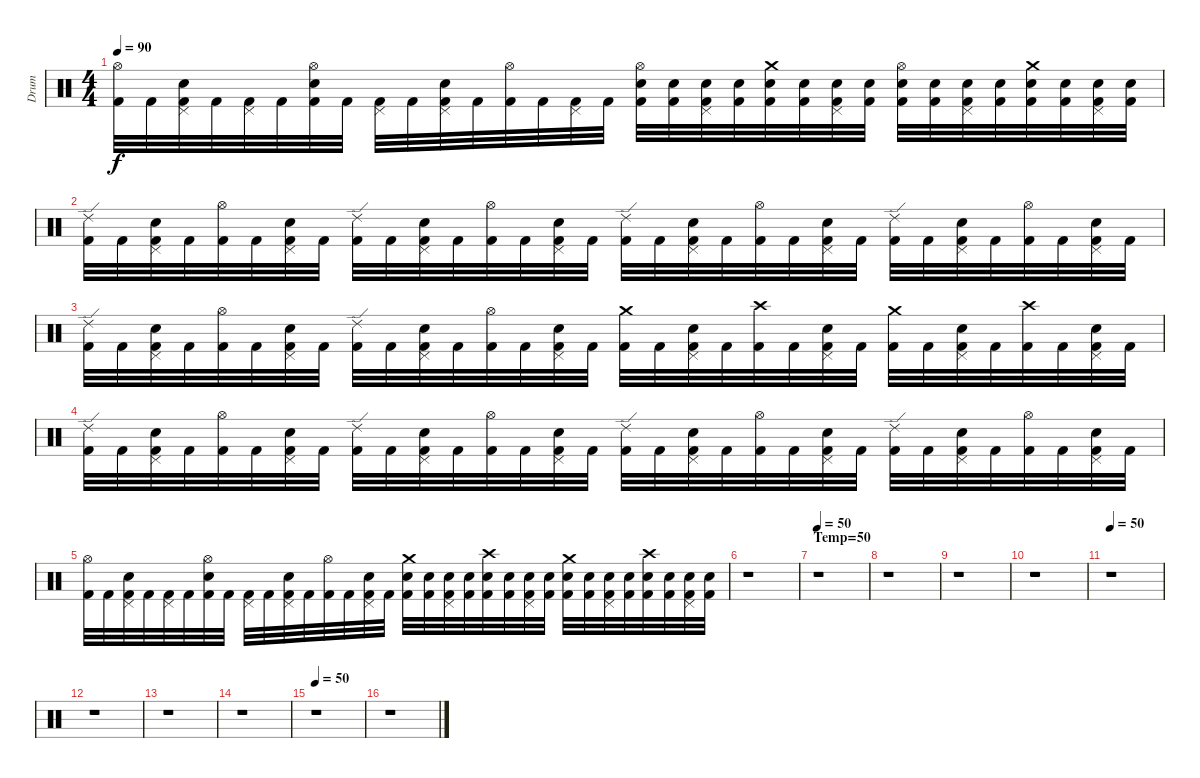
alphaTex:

\track ("Drum" "Drum") {instrument percussion}
\staff {score}
\articulation defaults
\ts (4 4)
\tempo 90
\clef neutral
\ks c
("Kick (hit) 2" "Hi-Hat (open)").32{dy f} "Kick (hit) 2".32 ("Kick (hit) 2" "Pedal Hi-Hat (hit)" "Snare (hit) 2").32 "Kick (hit) 2".32 ("Kick (hit) 2" "Pedal Hi-Hat (hit)").32 "Kick (hit) 2".32 ("Kick (hit) 2" "Hi-Hat (open)" "Snare (hit) 2").32 "Kick (hit) 2".32 ("Kick (hit) 2" "Pedal Hi-Hat (hit)").32 "Kick (hit) 2".32 ("Kick (hit) 2" "Pedal Hi-Hat (hit)" "Snare (hit) 2").32 "Kick (hit) 2".32 ("Kick (hit) 2" "Hi-Hat (open)").32 "Kick (hit) 2".32 ("Kick (hit) 2" "Pedal Hi-Hat (hit)").32 "Kick (hit) 2".32 ("Kick (hit) 2" "Hi-Hat (open)" "Snare (hit) 2").32 ("Kick (hit) 2" "Snare (hit) 2").32 ("Kick (hit) 2" "Pedal Hi-Hat (hit)" "Snare (hit) 2").32 ("Kick (hit) 2" "Snare (hit) 2").32 ("Kick (hit) 2" "Crash medium (hit)" "Snare (hit) 2").32 ("Kick (hit) 2" "Snare (hit) 2").32 ("Kick (hit) 2" "Pedal Hi-Hat (hit)" "Snare (hit) 2").32 ("Kick (hit) 2" "Snare (hit) 2").32 ("Kick (hit) 2" "Hi-Hat (open)" "Snare (hit) 2").32 ("Kick (hit) 2" "Snare (hit) 2").32 ("Kick (hit) 2" "Pedal Hi-Hat (hit)" "Snare (hit) 2").32 ("Kick (hit) 2" "Snare (hit) 2").32 ("Kick (hit) 2" "Crash medium (hit)" "Snare (hit) 2").32 ("Kick (hit) 2" "Snare (hit) 2").32 ("Kick (hit) 2" "Pedal Hi-Hat (hit)" "Snare (hit) 2").32 ("Kick (hit) 2" "Snare (hit) 2").32 |
("Kick (hit) 2" "Ride (edge) 2").32 "Kick (hit) 2".32 ("Kick (hit) 2" "Pedal Hi-Hat (hit)" "Snare (hit) 2").32 "Kick (hit) 2".32 ("Kick (hit) 2" "Hi-Hat (open)").32 "Kick (hit) 2".32 ("Kick (hit) 2" "Pedal Hi-Hat (hit)" "Snare (hit) 2").32 "Kick (hit) 2".32 ("Kick (hit) 2" "Ride (edge) 2").32 "Kick (hit) 2".32 ("Kick (hit) 2" "Pedal Hi-Hat (hit)" "Snare (hit) 2").32 "Kick (hit) 2".32 ("Kick (hit) 2" "Hi-Hat (open)").32 "Kick (hit) 2".32 ("Kick (hit) 2" "Pedal Hi-Hat (hit)" "Snare (hit) 2").32 "Kick (hit) 2".32 ("Kick (hit) 2" "Ride (edge) 2").32 "Kick (hit) 2".32 ("Kick (hit) 2" "Pedal Hi-Hat (hit)" "Snare (hit) 2").32 "Kick (hit) 2".32 ("Kick (hit) 2" "Hi-Hat (open)").32 "Kick (hit) 2".32 ("Kick (hit) 2" "Pedal Hi-Hat (hit)" "Snare (hit) 2").32 "Kick (hit) 2".32 ("Kick (hit) 2" "Ride (edge) 2").32 "Kick (hit) 2".32 ("Kick (hit) 2" "Pedal Hi-Hat (hit)" "Snare (hit) 2").32 "Kick (hit) 2".32 ("Kick (hit) 2" "Hi-Hat (open)").32 "Kick (hit) 2".32 ("Kick (hit) 2" "Pedal Hi-Hat (hit)" "Snare (hit) 2").32 "Kick (hit) 2".32 |
("Kick (hit) 2" "Ride (edge) 2").32 "Kick (hit) 2".32 ("Kick (hit) 2" "Pedal Hi-Hat (hit)" "Snare (hit) 2").32 "Kick (hit) 2".32 ("Kick (hit) 2" "Hi-Hat (open)").32 "Kick (hit) 2".32 ("Kick (hit) 2" "Pedal Hi-Hat (hit)" "Snare (hit) 2").32 "Kick (hit) 2".32 ("Kick (hit) 2" "Ride (edge) 2").32 "Kick (hit) 2".32 ("Kick (hit) 2" "Pedal Hi-Hat (hit)" "Snare (hit) 2").32 "Kick (hit) 2".32 ("Kick (hit) 2" "Hi-Hat (open)").32 "Kick (hit) 2".32 ("Kick (hit) 2" "Pedal Hi-Hat (hit)" "Snare (hit) 2").32 "Kick (hit) 2".32 ("Kick (hit) 2" "Crash medium (hit)").32 "Kick (hit) 2".32 ("Kick (hit) 2" "Pedal Hi-Hat (hit)" "Snare (hit) 2").32 "Kick (hit) 2".32 ("Kick (hit) 2" "Crash high (hit)").32 "Kick (hit) 2".32 ("Kick (hit) 2" "Pedal Hi-Hat (hit)" "Snare (hit) 2").32 "Kick (hit) 2".32 ("Kick (hit) 2" "Crash medium (hit)").32 "Kick (hit) 2".32 ("Kick (hit) 2" "Pedal Hi-Hat (hit)" "Snare (hit) 2").32 "Kick (hit) 2".32 ("Kick (hit) 2" "Crash high (hit)").32 "Kick (hit) 2".32 ("Kick (hit) 2" "Pedal Hi-Hat (hit)" "Snare (hit) 2").32 "Kick (hit) 2".32 |
("Kick (hit) 2" "Ride (edge) 2").32 "Kick (hit) 2".32 ("Kick (hit) 2" "Pedal Hi-Hat (hit)" "Snare (hit) 2").32 "Kick (hit) 2".32 ("Kick (hit) 2" "Hi-Hat (open)").32 "Kick (hit) 2".32 ("Kick (hit) 2" "Pedal Hi-Hat (hit)" "Snare (hit) 2").32 "Kick (hit) 2".32 ("Kick (hit) 2" "Ride (edge) 2").32 "Kick (hit) 2".32 ("Kick (hit) 2" "Pedal Hi-Hat (hit)" "Snare (hit) 2").32 "Kick (hit) 2".32 ("Kick (hit) 2" "Hi-Hat (open)").32 "Kick (hit) 2".32 ("Kick (hit) 2" "Pedal Hi-Hat (hit)" "Snare (hit) 2").32 "Kick (hit) 2".32 ("Kick (hit) 2" "Ride (edge) 2").32 "Kick (hit) 2".32 ("Kick (hit) 2" "Pedal Hi-Hat (hit)" "Snare (hit) 2").32 "Kick (hit) 2".32 ("Kick (hit) 2" "Hi-Hat (open)").32 "Kick (hit) 2".32 ("Kick (hit) 2" "Pedal Hi-Hat (hit)" "Snare (hit) 2").32 "Kick (hit) 2".32 ("Kick (hit) 2" "Ride (edge) 2").32 "Kick (hit) 2".32 ("Kick (hit) 2" "Pedal Hi-Hat (hit)" "Snare (hit) 2").32 "Kick (hit) 2".32 ("Kick (hit) 2" "Hi-Hat (open)").32 "Kick (hit) 2".32 ("Kick (hit) 2" "Pedal Hi-Hat (hit)" "Snare (hit) 2").32 "Kick (hit) 2".32 |
("Kick (hit) 2" "Hi-Hat (open)").32 "Kick (hit) 2".32 ("Kick (hit) 2" "Pedal Hi-Hat (hit)" "Snare (hit) 2").32 "Kick (hit) 2".32 ("Kick (hit) 2" "Pedal Hi-Hat (hit)").32 "Kick (hit) 2".32 ("Kick (hit) 2" "Hi-Hat (open)" "Snare (hit) 2").32 "Kick (hit) 2".32 ("Kick (hit) 2" "Pedal Hi-Hat (hit)").32 "Kick (hit) 2".32 ("Kick (hit) 2" "Pedal Hi-Hat (hit)" "Snare (hit) 2").32 "Kick (hit) 2".32 ("Kick (hit) 2" "Hi-Hat (open)").32 "Kick (hit) 2".32 ("Kick (hit) 2" "Pedal Hi-Hat (hit)" "Snare (hit) 2").32 "Kick (hit) 2".32 ("Kick (hit) 2" "Snare (hit) 2" "Crash medium (hit)").32 ("Kick (hit) 2" "Snare (hit) 2").32 ("Kick (hit) 2" "Pedal Hi-Hat (hit)" "Snare (hit) 2").32 ("Kick (hit) 2" "Snare (hit) 2").32 ("Kick (hit) 2" "Snare (hit) 2" "Crash high (hit)").32 ("Kick (hit) 2" "Snare (hit) 2").32 ("Kick (hit) 2" "Pedal Hi-Hat (hit)" "Snare (hit) 2").32 ("Kick (hit) 2" "Snare (hit) 2").32 ("Kick (hit) 2" "Snare (hit) 2" "Crash medium (hit)").32 ("Kick (hit) 2" "Snare (hit) 2").32 ("Kick (hit) 2" "Pedal Hi-Hat (hit)" "Snare (hit) 2").32 ("Kick (hit) 2" "Snare (hit) 2").32 ("Kick (hit) 2" "Snare (hit) 2" "Crash high (hit)").32 ("Kick (hit) 2" "Snare (hit) 2").32 ("Kick (hit) 2" "Pedal Hi-Hat (hit)" "Snare (hit) 2").32 ("Kick (hit) 2" "Snare (hit) 2").32 |
r.1 |
\section ("" "Temp=50")
\tempo 50
r.1 |
r.1 |
r.1 |
r.1 |
\tempo 50
r.1 |
r.1 |
r.1 |
r.1 |
\tempo 50
r.1 |
r.1
